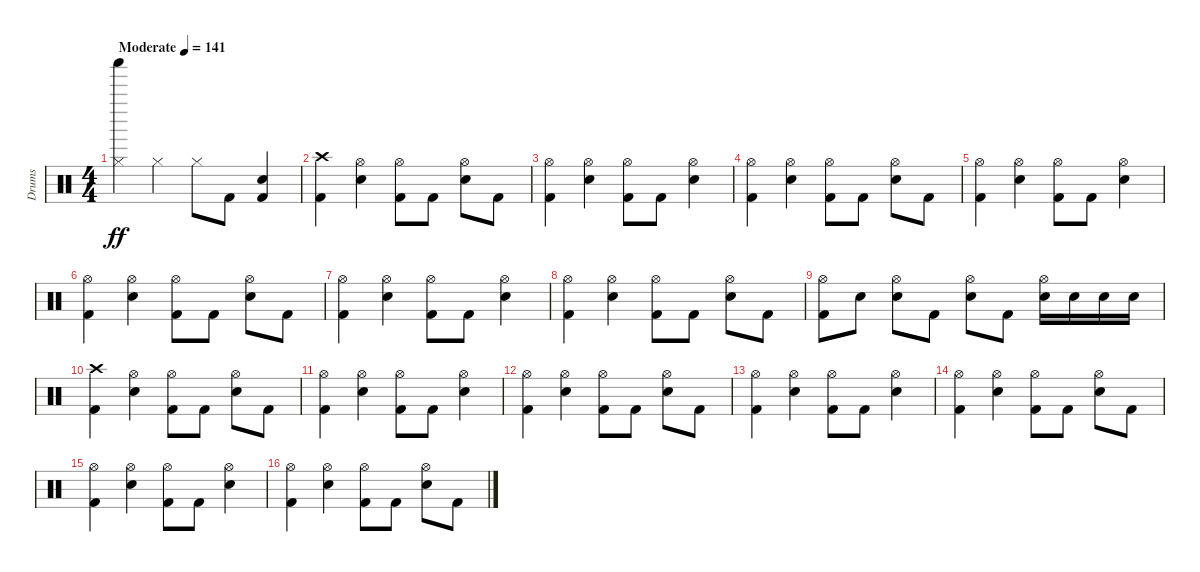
\track ("Drums" "Drums") {instrument percussion}
\staff {score}
\articulation defaults
\ts (4 4)
\tempo (141 "Moderate")
\clef neutral
\ks c
("Hi-Hat (closed)" "Shaker (hit)").4{dy ff} "Hi-Hat (closed)".4 "Hi-Hat (closed)".8 "Kick (hit) 2".8 ("Kick (hit) 2" "Snare (hit) 2").4 |
("Kick (hit) 2" "Crash high (hit)").4 ("Snare (hit) 2" "Hi-Hat (open)").4 ("Kick (hit) 2" "Hi-Hat (open)").8 "Kick (hit) 2".8 ("Snare (hit) 2" "Hi-Hat (open)").8 "Kick (hit) 2".8 |
("Kick (hit) 2" "Hi-Hat (open)").4 ("Snare (hit) 2" "Hi-Hat (open)").4 ("Kick (hit) 2" "Hi-Hat (open)").8 "Kick (hit) 2".8 ("Snare (hit) 2" "Hi-Hat (open)").4 |
("Kick (hit) 2" "Hi-Hat (open)").4 ("Snare (hit) 2" "Hi-Hat (open)").4 ("Kick (hit) 2" "Hi-Hat (open)").8 "Kick (hit) 2".8 ("Snare (hit) 2" "Hi-Hat (open)").8 "Kick (hit) 2".8 |
("Kick (hit) 2" "Hi-Hat (open)").4 ("Snare (hit) 2" "Hi-Hat (open)").4 ("Kick (hit) 2" "Hi-Hat (open)").8 "Kick (hit) 2".8 ("Snare (hit) 2" "Hi-Hat (open)").4 |
("Kick (hit) 2" "Hi-Hat (open)").4 ("Snare (hit) 2" "Hi-Hat (open)").4 ("Kick (hit) 2" "Hi-Hat (open)").8 "Kick (hit) 2".8 ("Snare (hit) 2" "Hi-Hat (open)").8 "Kick (hit) 2".8 |
("Kick (hit) 2" "Hi-Hat (open)").4 ("Snare (hit) 2" "Hi-Hat (open)").4 ("Kick (hit) 2" "Hi-Hat (open)").8 "Kick (hit) 2".8 ("Snare (hit) 2" "Hi-Hat (open)").4 |
("Kick (hit) 2" "Hi-Hat (open)").4 ("Snare (hit) 2" "Hi-Hat (open)").4 ("Kick (hit) 2" "Hi-Hat (open)").8 "Kick (hit) 2".8 ("Snare (hit) 2" "Hi-Hat (open)").8 "Kick (hit) 2".8 |
("Kick (hit) 2" "Hi-Hat (open)").8 "Snare (hit) 2".8 ("Snare (hit) 2" "Hi-Hat (open)").8 "Kick (hit) 2".8 ("Snare (hit) 2" "Hi-Hat (open)").8 "Kick (hit) 2".8 ("Snare (hit) 2" "Hi-Hat (open)").16 "Snare (hit) 2".16 "Snare (hit) 2".16 "Snare (hit) 2".16 |
("Kick (hit) 2" "Crash high (hit)").4 ("Snare (hit) 2" "Hi-Hat (open)").4 ("Kick (hit) 2" "Hi-Hat (open)").8 "Kick (hit) 2".8 ("Snare (hit) 2" "Hi-Hat (open)").8 "Kick (hit) 2".8 |
("Kick (hit) 2" "Hi-Hat (open)").4 ("Snare (hit) 2" "Hi-Hat (open)").4 ("Kick (hit) 2" "Hi-Hat (open)").8 "Kick (hit) 2".8 ("Snare (hit) 2" "Hi-Hat (open)").4 |
("Kick (hit) 2" "Hi-Hat (open)").4 ("Snare (hit) 2" "Hi-Hat (open)").4 ("Kick (hit) 2" "Hi-Hat (open)").8 "Kick (hit) 2".8 ("Snare (hit) 2" "Hi-Hat (open)").8 "Kick (hit) 2".8 |
("Kick (hit) 2" "Hi-Hat (open)").4 ("Snare (hit) 2" "Hi-Hat (open)").4 ("Kick (hit) 2" "Hi-Hat (open)").8 "Kick (hit) 2".8 ("Snare (hit) 2" "Hi-Hat (open)").4 |
("Kick (hit) 2" "Hi-Hat (open)").4 ("Snare (hit) 2" "Hi-Hat (open)").4 ("Kick (hit) 2" "Hi-Hat (open)").8 "Kick (hit) 2".8 ("Snare (hit) 2" "Hi-Hat (open)").8 "Kick (hit) 2".8 |
("Kick (hit) 2" "Hi-Hat (open)").4 ("Snare (hit) 2" "Hi-Hat (open)").4 ("Kick (hit) 2" "Hi-Hat (open)").8 "Kick (hit) 2".8 ("Snare (hit) 2" "Hi-Hat (open)").4 |
("Kick (hit) 2" "Hi-Hat (open)").4 ("Snare (hit) 2" "Hi-Hat (open)").4 ("Kick (hit) 2" "Hi-Hat (open)").8 "Kick (hit) 2".8 ("Snare (hit) 2" "Hi-Hat (open)").8 "Kick (hit) 2".8
